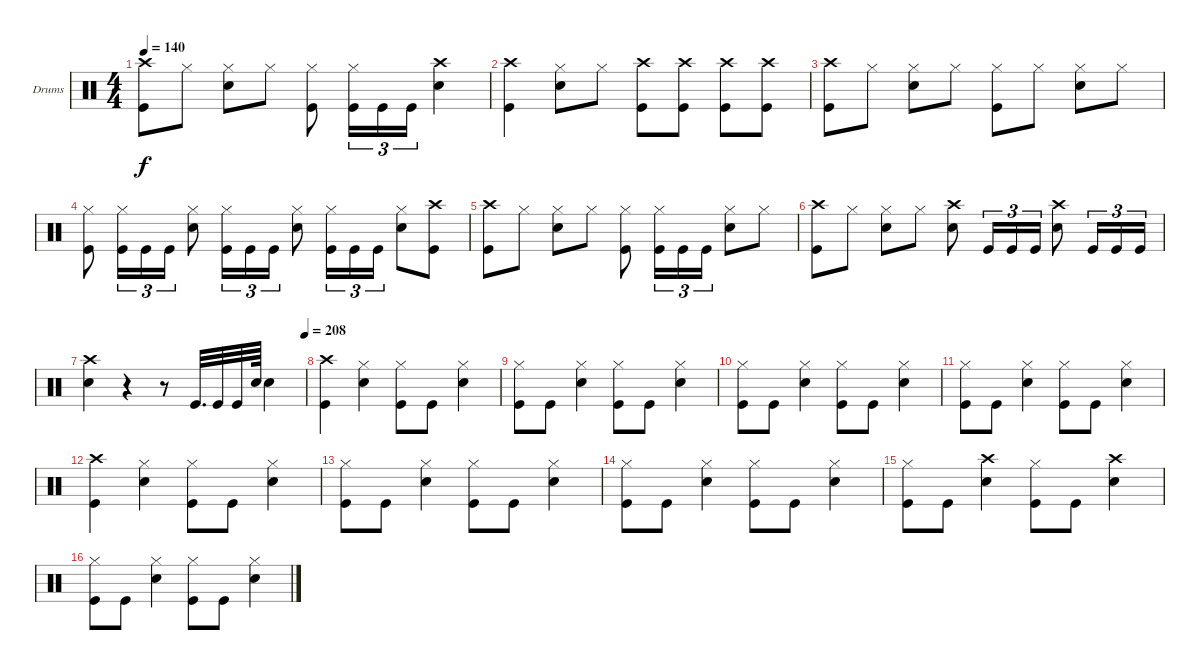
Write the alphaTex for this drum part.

\defaultSystemsLayout 4
\bracketExtendMode groupsimilarinstruments
\firstSystemTrackNameOrientation horizontal
\otherSystemsTrackNameOrientation horizontal
\track ("Drums" "Drums") {instrument percussion}
\staff {score}
\articulation defaults
\ts (4 4)
\tempo 140
\clef neutral
\ks c
("Crash high (hit)" "Kick (hit)").8{dy f} "Hi-Hat (closed)".8 ("Snare (hit) 2" "Hi-Hat (closed)").8 "Hi-Hat (closed)".8 ("Hi-Hat (closed)" "Kick (hit)").8 ("Hi-Hat (closed)" "Kick (hit)").16{tu (3 2)} "Kick (hit)".16{tu (3 2)} "Kick (hit)".16{tu (3 2)} ("Snare (hit) 2" "Crash high (hit)").4 |
("Kick (hit)" "Crash high (hit)").4 ("Snare (hit) 2" "Hi-Hat (closed)").8 "Hi-Hat (closed)".8 ("Kick (hit)" "Crash high (hit)").8 ("Kick (hit)" "Crash high (hit)").8 ("Kick (hit)" "Crash high (hit)").8 ("Kick (hit)" "Crash high (hit)").8 |
("Crash high (hit)" "Kick (hit)").8 "Hi-Hat (closed)".8 ("Snare (hit) 2" "Hi-Hat (closed)").8 "Hi-Hat (closed)".8 ("Hi-Hat (closed)" "Kick (hit)").8 "Hi-Hat (closed)".8 ("Snare (hit) 2" "Hi-Hat (closed)").8 "Hi-Hat (closed)".8 |
("Kick (hit)" "Hi-Hat (closed)").8 ("Kick (hit)" "Hi-Hat (closed)").16{tu (3 2)} "Kick (hit)".16{tu (3 2)} "Kick (hit)".16{tu (3 2)} ("Snare (hit) 2" "Hi-Hat (closed)").8 ("Kick (hit)" "Hi-Hat (closed)").16{tu (3 2)} "Kick (hit)".16{tu (3 2)} "Kick (hit)".16{tu (3 2)} ("Snare (hit) 2" "Hi-Hat (closed)").8 ("Kick (hit)" "Hi-Hat (closed)").16{tu (3 2)} "Kick (hit)".16{tu (3 2)} "Kick (hit)".16{tu (3 2)} ("Snare (hit) 2" "Hi-Hat (closed)").8 ("Crash high (hit)" "Kick (hit)").8 |
("Kick (hit)" "Crash high (hit)").8 "Hi-Hat (closed)".8 ("Snare (hit) 2" "Hi-Hat (closed)").8 "Hi-Hat (closed)".8 ("Kick (hit)" "Hi-Hat (closed)").8 ("Kick (hit)" "Hi-Hat (closed)").16{tu (3 2)} "Kick (hit)".16{tu (3 2)} "Kick (hit)".16{tu (3 2)} ("Snare (hit) 2" "Hi-Hat (closed)").8 "Hi-Hat (closed)".8 |
("Crash high (hit)" "Kick (hit)").8 "Hi-Hat (closed)".8 ("Snare (hit) 2" "Hi-Hat (closed)").8 "Hi-Hat (closed)".8 ("Snare (hit) 2" "Crash high (hit)").8 "Kick (hit)".16{tu (3 2)} "Kick (hit)".16{tu (3 2)} "Kick (hit)".16{tu (3 2)} ("Snare (hit) 2" "Crash high (hit)").8 "Kick (hit)".16{tu (3 2)} "Kick (hit)".16{tu (3 2)} "Kick (hit)".16{tu (3 2)} |
\tempo (208 1)
("Snare (hit) 2" "Crash high (hit)").4 r.4 r.8 "Kick (hit)".32{d} "Kick (hit)".32 "Kick (hit)".32 "Snare (hit) 2".64 "Snare (hit) 2".4 |
("Kick (hit)" "Crash high (hit)").4 ("Hi-Hat (closed)" "Snare (hit) 2").4 ("Kick (hit)" "Hi-Hat (closed)").8 "Kick (hit)".8 ("Snare (hit) 2" "Hi-Hat (closed)").4 |
("Kick (hit)" "Hi-Hat (closed)").8 "Kick (hit)".8 ("Snare (hit) 2" "Hi-Hat (closed)").4 ("Kick (hit)" "Hi-Hat (closed)").8 "Kick (hit)".8 ("Snare (hit) 2" "Hi-Hat (closed)").4 |
("Kick (hit)" "Hi-Hat (closed)").8 "Kick (hit)".8 ("Snare (hit) 2" "Hi-Hat (closed)").4 ("Kick (hit)" "Hi-Hat (closed)").8 "Kick (hit)".8 ("Snare (hit) 2" "Hi-Hat (closed)").4 |
("Kick (hit)" "Hi-Hat (closed)").8 "Kick (hit)".8 ("Snare (hit) 2" "Hi-Hat (closed)").4 ("Kick (hit)" "Hi-Hat (closed)").8 "Kick (hit)".8 ("Snare (hit) 2" "Hi-Hat (closed)").4 |
("Kick (hit)" "Crash high (hit)").4 ("Hi-Hat (closed)" "Snare (hit) 2").4 ("Kick (hit)" "Hi-Hat (closed)").8 "Kick (hit)".8 ("Snare (hit) 2" "Hi-Hat (closed)").4 |
("Kick (hit)" "Hi-Hat (closed)").8 "Kick (hit)".8 ("Snare (hit) 2" "Hi-Hat (closed)").4 ("Kick (hit)" "Hi-Hat (closed)").8 "Kick (hit)".8 ("Snare (hit) 2" "Hi-Hat (closed)").4 |
("Kick (hit)" "Hi-Hat (closed)").8 "Kick (hit)".8 ("Snare (hit) 2" "Hi-Hat (closed)").4 ("Kick (hit)" "Hi-Hat (closed)").8 "Kick (hit)".8 ("Snare (hit) 2" "Hi-Hat (closed)").4 |
("Hi-Hat (closed)" "Kick (hit)").8 "Kick (hit)".8 ("Snare (hit) 2" "Crash high (hit)").4 ("Hi-Hat (closed)" "Kick (hit)").8 "Kick (hit)".8 ("Snare (hit) 2" "Crash high (hit)").4 |
("Kick (hit)" "Hi-Hat (closed)").8 "Kick (hit)".8 ("Snare (hit) 2" "Hi-Hat (closed)").4 ("Kick (hit)" "Hi-Hat (closed)").8 "Kick (hit)".8 ("Snare (hit) 2" "Hi-Hat (closed)").4
